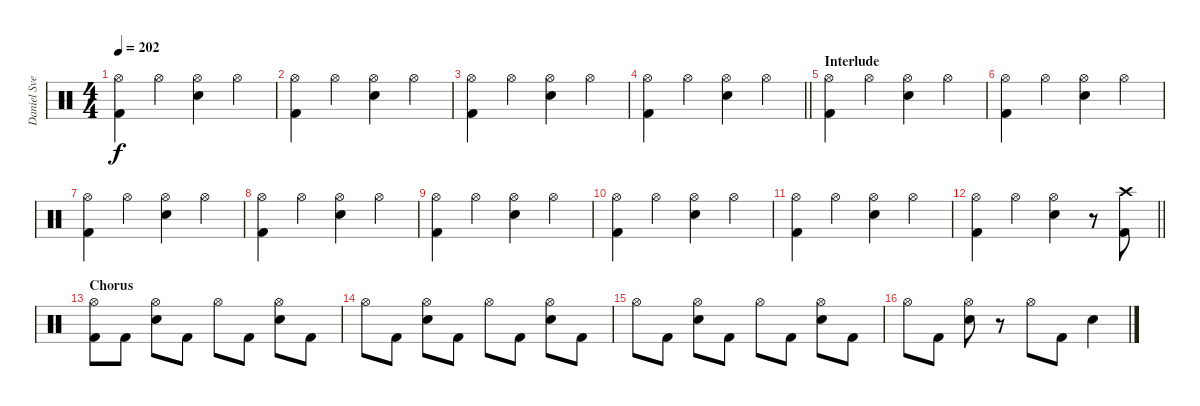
\track ("Daniel Svensson" "Daniel Sve") {instrument percussion}
\staff {score}
\articulation defaults
\ts (4 4)
\tempo 202
\clef neutral
\ks c
("Hi-Hat (open)" "Kick (hit) 2").4{dy f} "Hi-Hat (open)".4 ("Hi-Hat (open)" "Electric Snare (hit)").4 "Hi-Hat (open)".4 |
("Hi-Hat (open)" "Kick (hit) 2").4 "Hi-Hat (open)".4 ("Hi-Hat (open)" "Electric Snare (hit)").4 "Hi-Hat (open)".4 |
("Hi-Hat (open)" "Kick (hit) 2").4 "Hi-Hat (open)".4 ("Hi-Hat (open)" "Electric Snare (hit)").4 "Hi-Hat (open)".4 |
\barLineRight lightlight
("Hi-Hat (open)" "Kick (hit) 2").4 "Hi-Hat (open)".4 ("Hi-Hat (open)" "Electric Snare (hit)").4 "Hi-Hat (open)".4 |
\section ("" "Interlude")
("Hi-Hat (open)" "Kick (hit) 2").4 "Hi-Hat (open)".4 ("Hi-Hat (open)" "Electric Snare (hit)").4 "Hi-Hat (open)".4 |
("Hi-Hat (open)" "Kick (hit) 2").4 "Hi-Hat (open)".4 ("Hi-Hat (open)" "Electric Snare (hit)").4 "Hi-Hat (open)".4 |
("Hi-Hat (open)" "Kick (hit) 2").4 "Hi-Hat (open)".4 ("Hi-Hat (open)" "Electric Snare (hit)").4 "Hi-Hat (open)".4 |
("Hi-Hat (open)" "Kick (hit) 2").4 "Hi-Hat (open)".4 ("Hi-Hat (open)" "Electric Snare (hit)").4 "Hi-Hat (open)".4 |
("Hi-Hat (open)" "Kick (hit) 2").4 "Hi-Hat (open)".4 ("Hi-Hat (open)" "Electric Snare (hit)").4 "Hi-Hat (open)".4 |
("Hi-Hat (open)" "Kick (hit) 2").4 "Hi-Hat (open)".4 ("Hi-Hat (open)" "Electric Snare (hit)").4 "Hi-Hat (open)".4 |
("Hi-Hat (open)" "Kick (hit) 2").4 "Hi-Hat (open)".4 ("Hi-Hat (open)" "Electric Snare (hit)").4 "Hi-Hat (open)".4 |
\barLineRight lightlight
("Hi-Hat (open)" "Kick (hit) 2").4 "Hi-Hat (open)".4 ("Hi-Hat (open)" "Electric Snare (hit)").4 r.8 ("Crash high (hit)" "Kick (hit) 2").8 |
\section ("" "Chorus")
("Hi-Hat (open)" "Kick (hit) 2").8 "Kick (hit) 2".8 ("Hi-Hat (open)" "Electric Snare (hit)").8 "Kick (hit) 2".8 "Hi-Hat (open)".8 "Kick (hit) 2".8 ("Hi-Hat (open)" "Electric Snare (hit)").8 "Kick (hit) 2".8 |
"Hi-Hat (open)".8 "Kick (hit) 2".8 ("Hi-Hat (open)" "Electric Snare (hit)").8 "Kick (hit) 2".8 "Hi-Hat (open)".8 "Kick (hit) 2".8 ("Hi-Hat (open)" "Electric Snare (hit)").8 "Kick (hit) 2".8 |
"Hi-Hat (open)".8 "Kick (hit) 2".8 ("Hi-Hat (open)" "Electric Snare (hit)").8 "Kick (hit) 2".8 "Hi-Hat (open)".8 "Kick (hit) 2".8 ("Hi-Hat (open)" "Electric Snare (hit)").8 "Kick (hit) 2".8 |
"Hi-Hat (open)".8 "Kick (hit) 2".8 ("Hi-Hat (open)" "Electric Snare (hit)").8 r.8 "Hi-Hat (open)".8 "Kick (hit) 2".8 "Electric Snare (hit)".4
